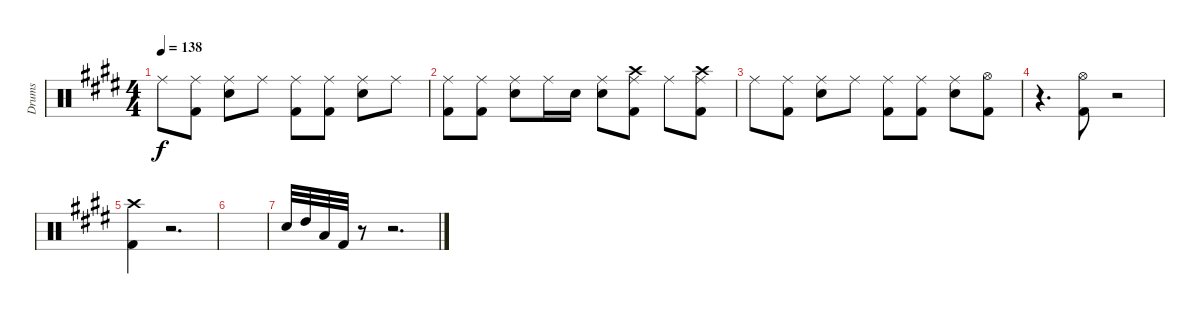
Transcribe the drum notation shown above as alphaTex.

\track ("Drums" "Drums") {instrument percussion}
\staff {score}
\articulation defaults
\ts (4 4)
\tempo 138
\clef neutral
\ks e "Ride (middle)".8{dy f}
("Kick (hit) 2" "Ride (middle)").8 ("Snare (hit) 2" "Ride (middle)").8 "Ride (middle)".8 ("Kick (hit) 2" "Ride (middle)").8 ("Kick (hit) 2" "Ride (middle)").8 ("Snare (hit) 2" "Ride (middle)").8 "Ride (middle)".8 |
("Kick (hit) 2" "Ride (middle)").8 ("Kick (hit) 2" "Ride (middle)").8 ("Snare (hit) 2" "Ride (middle)").8 "Ride (middle)".16 "Snare (hit) 2".16 ("Snare (hit) 2" "Ride (middle)").8 ("Crash high (hit)" "Kick (hit) 2" "Ride (middle)").8 "Ride (middle)".8 ("Crash high (hit)" "Kick (hit) 2" "Ride (middle)").8 |
"Ride (middle)".8 ("Kick (hit) 2" "Ride (middle)").8 ("Snare (hit) 2" "Ride (middle)").8 "Ride (middle)".8 ("Kick (hit) 2" "Ride (middle)").8 ("Kick (hit) 2" "Ride (middle)").8 ("Snare (hit) 2" "Ride (middle)").8 ("Hi-Hat (open)" "Kick (hit) 2").8 |
r.4{d} ("Kick (hit) 2" "Hi-Hat (open)").8 r.2 |
("Crash high (hit)" "Kick (hit) 2").4 r.2{d} |
|
"Snare (hit) 2".32 "High Tom (hit)".32 "Low Tom (hit)".32 "Kick (hit) 2".32 r.8 r.2{d}
